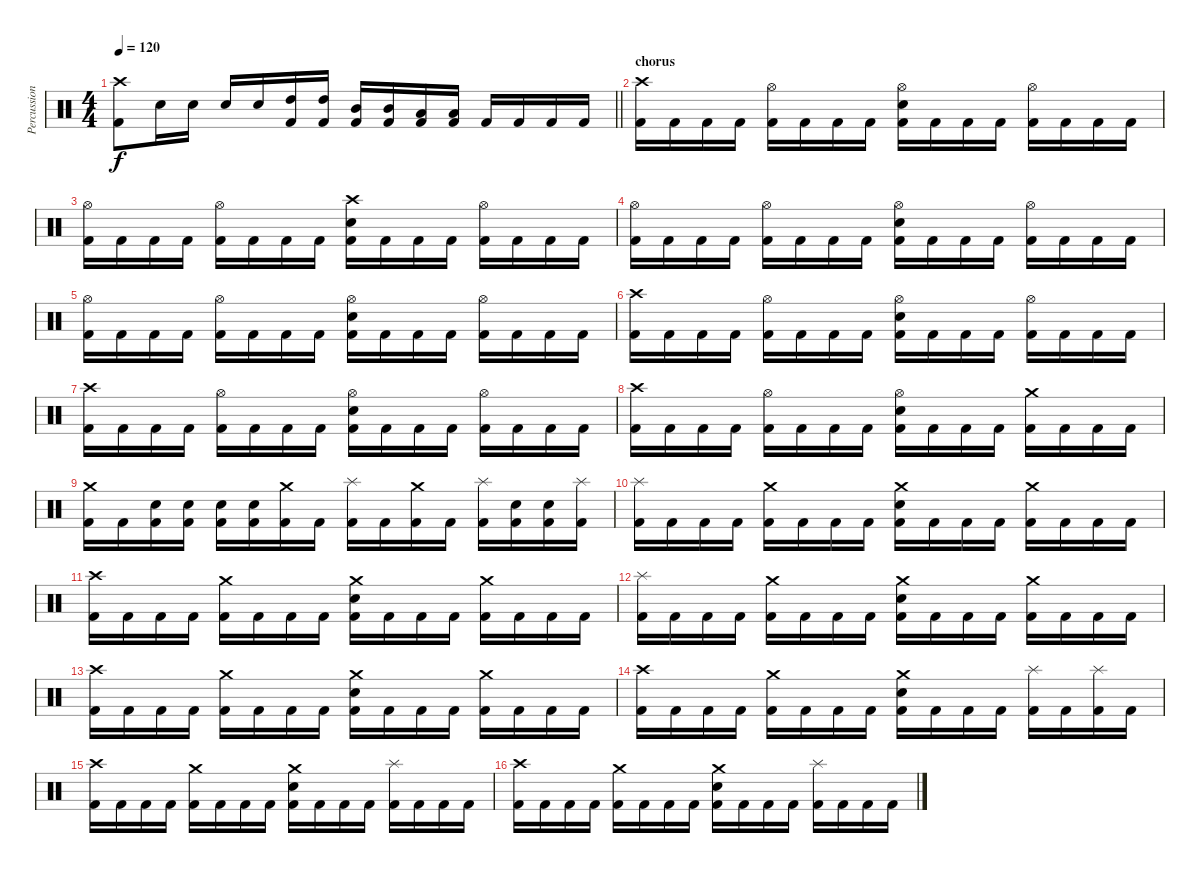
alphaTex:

\track ("Percussion" "Percussion") {instrument percussion}
\staff {score}
\articulation defaults
\ts (4 4)
\tempo 120
\clef neutral
\barLineRight lightlight
\ks c
("Crash high (hit)" "Kick (hit) 2").8{dy f} "Electric Snare (hit)".16 "Electric Snare (hit)".16 "Electric Snare (hit)".16 "Electric Snare (hit)".16 ("High Tom (hit)" "Kick (hit) 2").16 ("High Tom (hit)" "Kick (hit) 2").16 ("Mid Tom (hit)" "Kick (hit) 2").16 ("Mid Tom (hit)" "Kick (hit) 2").16 ("Low Tom (hit)" "Kick (hit) 2").16 ("Low Tom (hit)" "Kick (hit) 2").16 "Kick (hit) 2".16 "Kick (hit) 2".16 "Kick (hit) 2".16 "Kick (hit) 2".16 |
\section ("" "chorus")
("Crash high (hit)" "Kick (hit) 2").16 "Kick (hit) 2".16 "Kick (hit) 2".16 "Kick (hit) 2".16 ("Hi-Hat (open)" "Kick (hit) 2").16 "Kick (hit) 2".16 "Kick (hit) 2".16 "Kick (hit) 2".16 ("Hi-Hat (open)" "Electric Snare (hit)" "Kick (hit) 2").16 "Kick (hit) 2".16 "Kick (hit) 2".16 "Kick (hit) 2".16 ("Hi-Hat (open)" "Kick (hit) 2").16 "Kick (hit) 2".16 "Kick (hit) 2".16 "Kick (hit) 2".16 |
("Hi-Hat (open)" "Kick (hit) 2").16 "Kick (hit) 2".16 "Kick (hit) 2".16 "Kick (hit) 2".16 ("Hi-Hat (open)" "Kick (hit) 2").16 "Kick (hit) 2".16 "Kick (hit) 2".16 "Kick (hit) 2".16 ("Crash high (hit)" "Electric Snare (hit)" "Kick (hit) 2").16 "Kick (hit) 2".16 "Kick (hit) 2".16 "Kick (hit) 2".16 ("Hi-Hat (open)" "Kick (hit) 2").16 "Kick (hit) 2".16 "Kick (hit) 2".16 "Kick (hit) 2".16 |
("Hi-Hat (open)" "Kick (hit) 2").16 "Kick (hit) 2".16 "Kick (hit) 2".16 "Kick (hit) 2".16 ("Hi-Hat (open)" "Kick (hit) 2").16 "Kick (hit) 2".16 "Kick (hit) 2".16 "Kick (hit) 2".16 ("Electric Snare (hit)" "Hi-Hat (open)" "Kick (hit) 2").16 "Kick (hit) 2".16 "Kick (hit) 2".16 "Kick (hit) 2".16 ("Hi-Hat (open)" "Kick (hit) 2").16 "Kick (hit) 2".16 "Kick (hit) 2".16 "Kick (hit) 2".16 |
("Hi-Hat (open)" "Kick (hit) 2").16 "Kick (hit) 2".16 "Kick (hit) 2".16 "Kick (hit) 2".16 ("Hi-Hat (open)" "Kick (hit) 2").16 "Kick (hit) 2".16 "Kick (hit) 2".16 "Kick (hit) 2".16 ("Electric Snare (hit)" "Hi-Hat (open)" "Kick (hit) 2").16 "Kick (hit) 2".16 "Kick (hit) 2".16 "Kick (hit) 2".16 ("Hi-Hat (open)" "Kick (hit) 2").16 "Kick (hit) 2".16 "Kick (hit) 2".16 "Kick (hit) 2".16 |
("Crash high (hit)" "Kick (hit) 2").16 "Kick (hit) 2".16 "Kick (hit) 2".16 "Kick (hit) 2".16 ("Hi-Hat (open)" "Kick (hit) 2").16 "Kick (hit) 2".16 "Kick (hit) 2".16 "Kick (hit) 2".16 ("Hi-Hat (open)" "Electric Snare (hit)" "Kick (hit) 2").16 "Kick (hit) 2".16 "Kick (hit) 2".16 "Kick (hit) 2".16 ("Hi-Hat (open)" "Kick (hit) 2").16 "Kick (hit) 2".16 "Kick (hit) 2".16 "Kick (hit) 2".16 |
("Crash high (hit)" "Kick (hit) 2").16 "Kick (hit) 2".16 "Kick (hit) 2".16 "Kick (hit) 2".16 ("Hi-Hat (open)" "Kick (hit) 2").16 "Kick (hit) 2".16 "Kick (hit) 2".16 "Kick (hit) 2".16 ("Hi-Hat (open)" "Electric Snare (hit)" "Kick (hit) 2").16 "Kick (hit) 2".16 "Kick (hit) 2".16 "Kick (hit) 2".16 ("Hi-Hat (open)" "Kick (hit) 2").16 "Kick (hit) 2".16 "Kick (hit) 2".16 "Kick (hit) 2".16 |
("Crash high (hit)" "Kick (hit) 2").16 "Kick (hit) 2".16 "Kick (hit) 2".16 "Kick (hit) 2".16 ("Hi-Hat (open)" "Kick (hit) 2").16 "Kick (hit) 2".16 "Kick (hit) 2".16 "Kick (hit) 2".16 ("Hi-Hat (open)" "Electric Snare (hit)" "Kick (hit) 2").16 "Kick (hit) 2".16 "Kick (hit) 2".16 "Kick (hit) 2".16 ("Crash medium (hit)" "Kick (hit) 2").16 "Kick (hit) 2".16 "Kick (hit) 2".16 "Kick (hit) 2".16 |
("Crash medium (hit)" "Kick (hit) 2").16 "Kick (hit) 2".16 ("Electric Snare (hit)" "Kick (hit) 2").16 ("Electric Snare (hit)" "Kick (hit) 2").16 ("Electric Snare (hit)" "Kick (hit) 2").16 ("Electric Snare (hit)" "Kick (hit) 2").16 ("Crash medium (hit)" "Kick (hit) 2").16 "Kick (hit) 2".16 ("Splash (hit)" "Kick (hit) 2").16 "Kick (hit) 2".16 ("Crash medium (hit)" "Kick (hit) 2").16 "Kick (hit) 2".16 ("Splash (hit)" "Kick (hit) 2").16 ("Electric Snare (hit)" "Kick (hit) 2").16 ("Electric Snare (hit)" "Kick (hit) 2").16 ("Splash (hit)" "Kick (hit) 2").16 |
("Splash (hit)" "Kick (hit) 2").16 "Kick (hit) 2".16 "Kick (hit) 2".16 "Kick (hit) 2".16 ("Crash medium (hit)" "Kick (hit) 2").16 "Kick (hit) 2".16 "Kick (hit) 2".16 "Kick (hit) 2".16 ("Crash medium (hit)" "Electric Snare (hit)" "Kick (hit) 2").16 "Kick (hit) 2".16 "Kick (hit) 2".16 "Kick (hit) 2".16 ("Crash medium (hit)" "Kick (hit) 2").16 "Kick (hit) 2".16 "Kick (hit) 2".16 "Kick (hit) 2".16 |
("Crash high (hit)" "Kick (hit) 2").16 "Kick (hit) 2".16 "Kick (hit) 2".16 "Kick (hit) 2".16 ("Crash medium (hit)" "Kick (hit) 2").16 "Kick (hit) 2".16 "Kick (hit) 2".16 "Kick (hit) 2".16 ("Crash medium (hit)" "Electric Snare (hit)" "Kick (hit) 2").16 "Kick (hit) 2".16 "Kick (hit) 2".16 "Kick (hit) 2".16 ("Crash medium (hit)" "Kick (hit) 2").16 "Kick (hit) 2".16 "Kick (hit) 2".16 "Kick (hit) 2".16 |
("Splash (hit)" "Kick (hit) 2").16 "Kick (hit) 2".16 "Kick (hit) 2".16 "Kick (hit) 2".16 ("Crash medium (hit)" "Kick (hit) 2").16 "Kick (hit) 2".16 "Kick (hit) 2".16 "Kick (hit) 2".16 ("Crash medium (hit)" "Electric Snare (hit)" "Kick (hit) 2").16 "Kick (hit) 2".16 "Kick (hit) 2".16 "Kick (hit) 2".16 ("Crash medium (hit)" "Kick (hit) 2").16 "Kick (hit) 2".16 "Kick (hit) 2".16 "Kick (hit) 2".16 |
("Crash high (hit)" "Kick (hit) 2").16 "Kick (hit) 2".16 "Kick (hit) 2".16 "Kick (hit) 2".16 ("Crash medium (hit)" "Kick (hit) 2").16 "Kick (hit) 2".16 "Kick (hit) 2".16 "Kick (hit) 2".16 ("Crash medium (hit)" "Electric Snare (hit)" "Kick (hit) 2").16 "Kick (hit) 2".16 "Kick (hit) 2".16 "Kick (hit) 2".16 ("Crash medium (hit)" "Kick (hit) 2").16 "Kick (hit) 2".16 "Kick (hit) 2".16 "Kick (hit) 2".16 |
("Crash high (hit)" "Kick (hit) 2").16 "Kick (hit) 2".16 "Kick (hit) 2".16 "Kick (hit) 2".16 ("Crash medium (hit)" "Kick (hit) 2").16 "Kick (hit) 2".16 "Kick (hit) 2".16 "Kick (hit) 2".16 ("Crash medium (hit)" "Electric Snare (hit)" "Kick (hit) 2").16 "Kick (hit) 2".16 "Kick (hit) 2".16 "Kick (hit) 2".16 ("Splash (hit)" "Kick (hit) 2").16 "Kick (hit) 2".16 ("Splash (hit)" "Kick (hit) 2").16 "Kick (hit) 2".16 |
("Crash high (hit)" "Kick (hit) 2").16 "Kick (hit) 2".16 "Kick (hit) 2".16 "Kick (hit) 2".16 ("Crash medium (hit)" "Kick (hit) 2").16 "Kick (hit) 2".16 "Kick (hit) 2".16 "Kick (hit) 2".16 ("Crash medium (hit)" "Electric Snare (hit)" "Kick (hit) 2").16 "Kick (hit) 2".16 "Kick (hit) 2".16 "Kick (hit) 2".16 ("Splash (hit)" "Kick (hit) 2").16 "Kick (hit) 2".16 "Kick (hit) 2".16 "Kick (hit) 2".16 |
("Crash high (hit)" "Kick (hit) 2").16 "Kick (hit) 2".16 "Kick (hit) 2".16 "Kick (hit) 2".16 ("Crash medium (hit)" "Kick (hit) 2").16 "Kick (hit) 2".16 "Kick (hit) 2".16 "Kick (hit) 2".16 ("Crash medium (hit)" "Electric Snare (hit)" "Kick (hit) 2").16 "Kick (hit) 2".16 "Kick (hit) 2".16 "Kick (hit) 2".16 ("Splash (hit)" "Kick (hit) 2").16 "Kick (hit) 2".16 "Kick (hit) 2".16 "Kick (hit) 2".16
